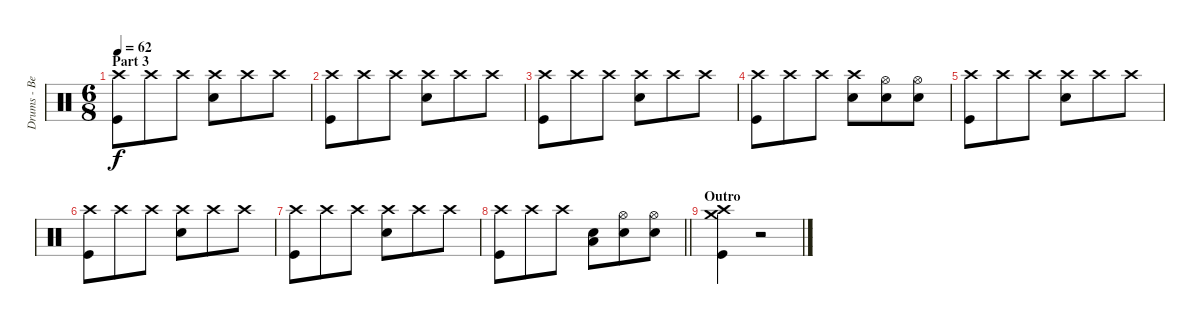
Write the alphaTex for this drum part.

\track ("Drums - Ben Johnston" "Drums - Be") {instrument percussion}
\staff {score}
\articulation defaults
\ts (6 8)
\section ("" "Part 3")
\tempo 62
\clef neutral
\ks c
("Crash high (hit)" "Kick (hit)").8{dy f} "Crash high (hit)".8 "Crash high (hit)".8 ("Crash high (hit)" "Snare (hit) 2").8 "Crash high (hit)".8 "Crash high (hit)".8 |
("Crash high (hit)" "Kick (hit)").8 "Crash high (hit)".8 "Crash high (hit)".8 ("Crash high (hit)" "Snare (hit) 2").8 "Crash high (hit)".8 "Crash high (hit)".8 |
("Crash high (hit)" "Kick (hit)").8 "Crash high (hit)".8 "Crash high (hit)".8 ("Crash high (hit)" "Snare (hit) 2").8 "Crash high (hit)".8 "Crash high (hit)".8 |
("Crash high (hit)" "Kick (hit)").8 "Crash high (hit)".8 "Crash high (hit)".8 ("Crash high (hit)" "Snare (hit) 2").8 ("Hi-Hat (open)" "Snare (hit) 2").8 ("Hi-Hat (open)" "Snare (hit) 2").8 |
("Crash high (hit)" "Kick (hit)").8 "Crash high (hit)".8 "Crash high (hit)".8 ("Crash high (hit)" "Snare (hit) 2").8 "Crash high (hit)".8 "Crash high (hit)".8 |
("Crash high (hit)" "Kick (hit)").8 "Crash high (hit)".8 "Crash high (hit)".8 ("Crash high (hit)" "Snare (hit) 2").8 "Crash high (hit)".8 "Crash high (hit)".8 |
("Crash high (hit)" "Kick (hit)").8 "Crash high (hit)".8 "Crash high (hit)".8 ("Crash high (hit)" "Snare (hit) 2").8 "Crash high (hit)".8 "Crash high (hit)".8 |
\barLineRight lightlight
("Crash high (hit)" "Kick (hit)").8 "Crash high (hit)".8 "Crash high (hit)".8 ("Low Tom (hit)" "Snare (hit) 2").8 ("Hi-Hat (open)" "Snare (hit) 2").8 ("Hi-Hat (open)" "Snare (hit) 2").8 |
\section ("" "Outro")
("Crash high (hit)" "Crash medium (hit)" "Kick (hit)").4 r.2
